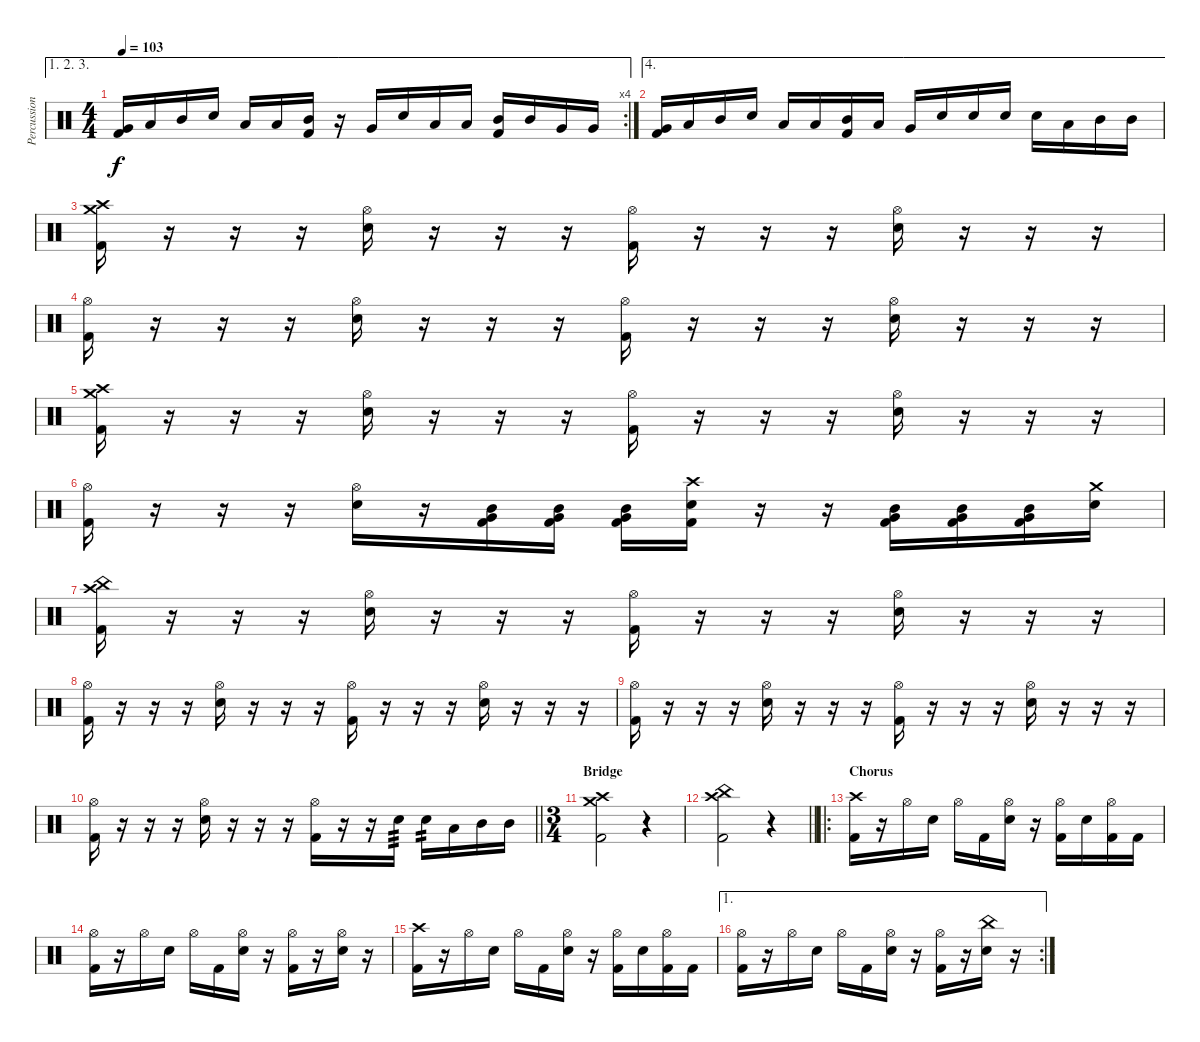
\track ("Percussion" "Percussion") {instrument percussion}
\staff {score}
\articulation defaults
\ae (1 2 3)
\rc 4
\ts (4 4)
\tempo 103
\clef neutral
\ks c
("Very Low Tom (hit)" "Kick (hit) 2").16{dy f} "Low Tom (hit)".16 "Mid Tom (hit)".16 "Electric Snare (hit)".16 "Low Tom (hit)".16 "Low Tom (hit)".16 ("Mid Tom (hit)" "Kick (hit) 2").16 r.16 "Very Low Tom (hit)".16 "Electric Snare (hit)".16 "Low Tom (hit)".16 "Low Tom (hit)".16 ("Mid Tom (hit)" "Kick (hit) 2").16 "Mid Tom (hit)".16 "Very Low Tom (hit)".16 "Very Low Tom (hit)".16 |
\ae 4
("Very Low Tom (hit)" "Kick (hit) 2").16 "Low Tom (hit)".16 "Mid Tom (hit)".16 "Electric Snare (hit)".16 "Low Tom (hit)".16 "Low Tom (hit)".16 ("Mid Tom (hit)" "Kick (hit) 2").16 "Low Tom (hit)".16 "Very Low Tom (hit)".16 "Electric Snare (hit)".16 "Electric Snare (hit)".16 "Electric Snare (hit)".16 "Electric Snare (hit)".16 "Low Tom (hit)".16 "Mid Tom (hit)".16 "Mid Tom (hit)".16 |
("Crash high (hit)" "Crash medium (hit)" "Kick (hit) 2").16 r.16 r.16 r.16 ("Hi-Hat (open)" "Electric Snare (hit)").16 r.16 r.16 r.16 ("Hi-Hat (open)" "Kick (hit) 2").16 r.16 r.16 r.16 ("Hi-Hat (open)" "Electric Snare (hit)").16 r.16 r.16 r.16 |
("Hi-Hat (open)" "Kick (hit) 2").16 r.16 r.16 r.16 ("Hi-Hat (open)" "Electric Snare (hit)").16 r.16 r.16 r.16 ("Hi-Hat (open)" "Kick (hit) 2").16 r.16 r.16 r.16 ("Hi-Hat (open)" "Electric Snare (hit)").16 r.16 r.16 r.16 |
("Crash high (hit)" "Crash medium (hit)" "Kick (hit) 2").16 r.16 r.16 r.16 ("Hi-Hat (open)" "Electric Snare (hit)").16 r.16 r.16 r.16 ("Hi-Hat (open)" "Kick (hit) 2").16 r.16 r.16 r.16 ("Hi-Hat (open)" "Electric Snare (hit)").16 r.16 r.16 r.16 |
("Hi-Hat (open)" "Kick (hit) 2").16 r.16 r.16 r.16 ("Hi-Hat (open)" "Electric Snare (hit)").16 r.16 ("Mid Tom (hit)" "Very Low Tom (hit)" "Kick (hit) 2").16 ("Mid Tom (hit)" "Very Low Tom (hit)" "Kick (hit) 2").16 ("Mid Tom (hit)" "Very Low Tom (hit)" "Kick (hit) 2").16 ("Crash high (hit)" "Electric Snare (hit)" "Kick (hit) 2").16 r.16 r.16 ("Mid Tom (hit)" "Very Low Tom (hit)" "Kick (hit) 2").16 ("Mid Tom (hit)" "Very Low Tom (hit)" "Kick (hit) 2").16 ("Mid Tom (hit)" "Very Low Tom (hit)" "Kick (hit) 2").16 ("Crash medium (hit)" "Electric Snare (hit)").16 |
("Crash high (hit)" "China (hit)" "Kick (hit) 2").16 r.16 r.16 r.16 ("Hi-Hat (open)" "Electric Snare (hit)").16 r.16 r.16 r.16 ("Hi-Hat (open)" "Kick (hit) 2").16 r.16 r.16 r.16 ("Hi-Hat (open)" "Electric Snare (hit)").16 r.16 r.16 r.16 |
("Hi-Hat (open)" "Kick (hit) 2").16 r.16 r.16 r.16 ("Hi-Hat (open)" "Electric Snare (hit)").16 r.16 r.16 r.16 ("Hi-Hat (open)" "Kick (hit) 2").16 r.16 r.16 r.16 ("Hi-Hat (open)" "Electric Snare (hit)").16 r.16 r.16 r.16 |
("Hi-Hat (open)" "Kick (hit) 2").16 r.16 r.16 r.16 ("Hi-Hat (open)" "Electric Snare (hit)").16 r.16 r.16 r.16 ("Hi-Hat (open)" "Kick (hit) 2").16 r.16 r.16 r.16 ("Hi-Hat (open)" "Electric Snare (hit)").16 r.16 r.16 r.16 |
\barLineRight lightlight
("Hi-Hat (open)" "Kick (hit) 2").16 r.16 r.16 r.16 ("Hi-Hat (open)" "Electric Snare (hit)").16 r.16 r.16 r.16 ("Hi-Hat (open)" "Kick (hit) 2").16 r.16 r.16 "Electric Snare (hit)".16{tp 3} "Electric Snare (hit)".16{tp 2} "Low Tom (hit)".16 "Mid Tom (hit)".16 "Mid Tom (hit)".16 |
\ts (3 4)
\section ("" "Bridge")
("Crash high (hit)" "Crash medium (hit)" "Kick (hit) 2").2 r.4 |
\barLineRight lightlight
("Crash high (hit)" "China (hit)" "Kick (hit) 2").2 r.4 |
\ro
\section ("" "Chorus")
("Crash high (hit)" "Kick (hit) 2").16 r.16 "Hi-Hat (open)".16 "Electric Snare (hit)".16 "Hi-Hat (open)".16 "Kick (hit) 2".16 ("Hi-Hat (open)" "Electric Snare (hit)").16 r.16 ("Hi-Hat (open)" "Kick (hit) 2").16 "Electric Snare (hit)".16 ("Hi-Hat (open)" "Kick (hit) 2").16 "Kick (hit) 2".16 |
("Hi-Hat (open)" "Kick (hit) 2").16 r.16 "Hi-Hat (open)".16 "Electric Snare (hit)".16 "Hi-Hat (open)".16 "Kick (hit) 2".16 ("Hi-Hat (open)" "Electric Snare (hit)").16 r.16 ("Hi-Hat (open)" "Kick (hit) 2").16 r.16 ("Hi-Hat (open)" "Electric Snare (hit)").16 r.16 |
("Crash high (hit)" "Kick (hit) 2").16 r.16 "Hi-Hat (open)".16 "Electric Snare (hit)".16 "Hi-Hat (open)".16 "Kick (hit) 2".16 ("Hi-Hat (open)" "Electric Snare (hit)").16 r.16 ("Hi-Hat (open)" "Kick (hit) 2").16 "Electric Snare (hit)".16 ("Hi-Hat (open)" "Kick (hit) 2").16 "Kick (hit) 2".16 |
\ae 1
\rc 2
("Hi-Hat (open)" "Kick (hit) 2").16 r.16 "Hi-Hat (open)".16 "Electric Snare (hit)".16 "Hi-Hat (open)".16 "Kick (hit) 2".16 ("Hi-Hat (open)" "Electric Snare (hit)").16 r.16 ("Hi-Hat (open)" "Kick (hit) 2").16 r.16 ("China (hit)" "Electric Snare (hit)").16 r.16
